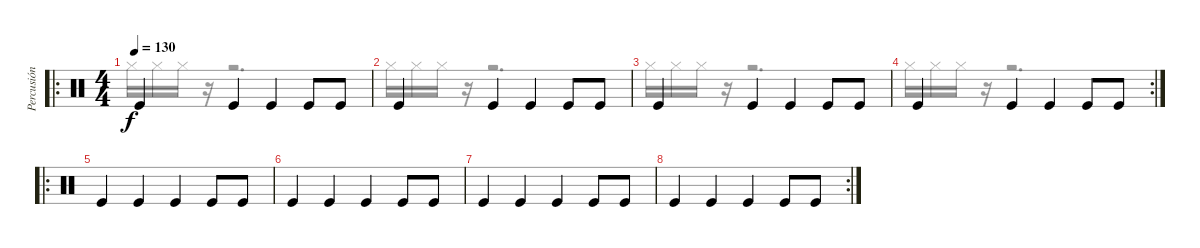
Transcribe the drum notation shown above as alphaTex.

\track ("Percusión" "Percusión") {instrument percussion}
\staff {score}
\articulation defaults
\voice
\ro
\ts (4 4)
\tempo 130
\clef neutral
\ks c "Kick (hit)".4{dy f} "Kick (hit)".4 "Kick (hit)".4 "Kick (hit)".8 "Kick (hit)".8
|
"Kick (hit)".4 "Kick (hit)".4 "Kick (hit)".4 "Kick (hit)".8 "Kick (hit)".8 |
"Kick (hit)".4 "Kick (hit)".4 "Kick (hit)".4 "Kick (hit)".8 "Kick (hit)".8 |
\rc 2 "Kick (hit)".4 "Kick (hit)".4 "Kick (hit)".4 "Kick (hit)".8 "Kick (hit)".8
|
\ro "Kick (hit)".4 "Kick (hit)".4 "Kick (hit)".4 "Kick (hit)".8 "Kick (hit)".8
|
"Kick (hit)".4 "Kick (hit)".4 "Kick (hit)".4 "Kick (hit)".8 "Kick (hit)".8 |
"Kick (hit)".4 "Kick (hit)".4 "Kick (hit)".4 "Kick (hit)".8 "Kick (hit)".8 |
\rc 2 "Kick (hit)".4 "Kick (hit)".4 "Kick (hit)".4 "Kick (hit)".8 "Kick (hit)".8
\voice
\clef neutral
\ottava regular
\simile none
\ks c "Hi-Hat (closed)".16{dy f} "Hi-Hat (closed)".16 "Hi-Hat (closed)".16
r.16 r.2{d} |
"Hi-Hat (closed)".16 "Hi-Hat (closed)".16 "Hi-Hat (closed)".16 r.16 r.2{d} |
"Hi-Hat (closed)".16 "Hi-Hat (closed)".16 "Hi-Hat (closed)".16 r.16 r.2{d} |
"Hi-Hat (closed)".16 "Hi-Hat (closed)".16 "Hi-Hat (closed)".16 r.16 r.2{d} |
|
|
|
